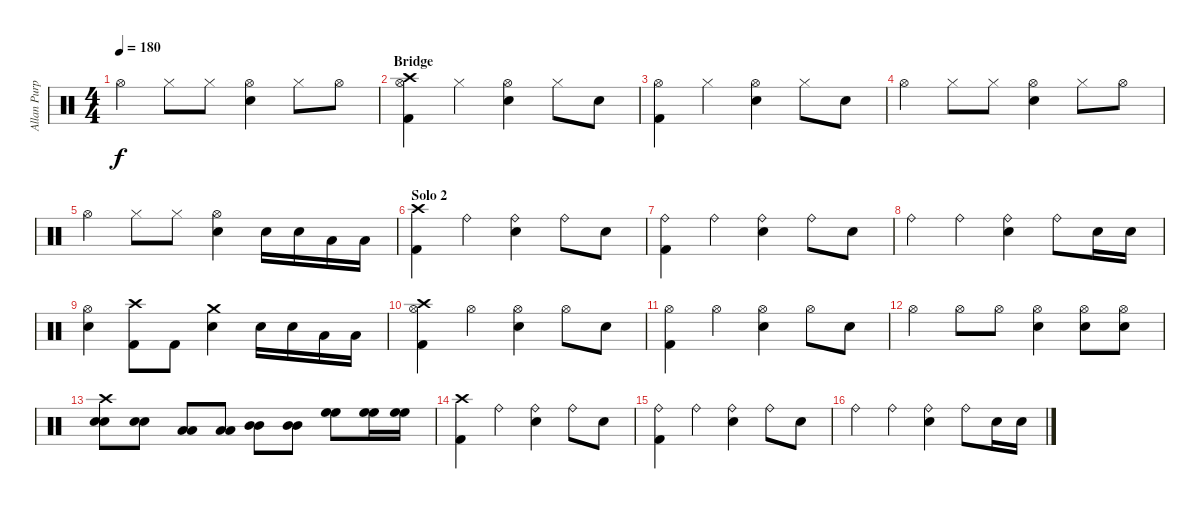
\track ("Allan Purple" "Allan Purp") {instrument percussion}
\staff {score}
\articulation defaults
\ts (4 4)
\tempo 180
\clef neutral
\ks c "Hi-Hat (open)".4{dy f} "Hi-Hat (closed)".8 "Hi-Hat (closed)".8
("Hi-Hat (open)" "Snare (hit) 2").4 "Hi-Hat (closed)".8 "Hi-Hat (open)".8 |
\section ("" "Bridge")
("Crash high (hit)" "Hi-Hat (open)" "Kick (hit) 2").4 "Hi-Hat (closed)".4 ("Hi-Hat (open)" "Snare (hit) 2").4 "Hi-Hat (closed)".8 "Snare (hit) 2".8 |
("Hi-Hat (open)" "Kick (hit) 2").4 "Hi-Hat (closed)".4 ("Hi-Hat (open)" "Snare (hit) 2").4 "Hi-Hat (closed)".8 "Snare (hit) 2".8 |
"Hi-Hat (open)".4 "Hi-Hat (closed)".8 "Hi-Hat (closed)".8 ("Hi-Hat (open)" "Snare (hit) 2").4 "Hi-Hat (closed)".8 "Hi-Hat (open)".8 |
"Hi-Hat (open)".4 "Hi-Hat (closed)".8 "Hi-Hat (closed)".8 ("Hi-Hat (open)" "Snare (hit) 2").4 "Electric Snare (hit)".16 "Electric Snare (hit)".16 "Low Tom (hit)".16 "Low Tom (hit)".16 |
\section ("" "Solo 2")
("Crash high (hit)" "Kick (hit) 2").4 "Ride (bell)".4 ("Ride (bell)" "Snare (hit) 2").4 "Ride (bell)".8 "Snare (hit) 2".8 |
("Ride (bell)" "Kick (hit) 2").4 "Ride (bell)".4 ("Ride (bell)" "Snare (hit) 2").4 "Ride (bell)".8 "Snare (hit) 2".8 |
"Ride (bell)".4 "Ride (bell)".4 ("Ride (bell)" "Snare (hit) 2").4 "Ride (bell)".8 "Electric Snare (hit)".16 "Electric Snare (hit)".16 |
("Hi-Hat (open)" "Electric Snare (hit)").4 ("Crash high (hit)" "Kick (hit) 2").8 "Kick (hit) 2".8 ("Crash medium (hit)" "Snare (hit) 2").4 "Electric Snare (hit)".16 "Electric Snare (hit)".16 "Low Tom (hit)".16 "Low Tom (hit)".16 |
("Crash high (hit)" "Hi-Hat (open)" "Kick (hit) 2").4 "Hi-Hat (open)".4 ("Hi-Hat (open)" "Snare (hit) 2").4 "Hi-Hat (open)".8 "Snare (hit) 2".8 |
("Hi-Hat (open)" "Kick (hit) 2").4 "Hi-Hat (open)".4 ("Hi-Hat (open)" "Snare (hit) 2").4 "Hi-Hat (open)".8 "Snare (hit) 2".8 |
"Hi-Hat (open)".4 "Hi-Hat (open)".8 "Hi-Hat (open)".8 ("Hi-Hat (open)" "Snare (hit) 2").4 ("Hi-Hat (open)" "Electric Snare (hit)").8 ("Hi-Hat (open)" "Electric Snare (hit)").8 |
("Crash high (hit)" "Electric Snare (hit)" "Electric Snare (hit)").8 ("Electric Snare (hit)" "Electric Snare (hit)").8 ("Low Tom (hit)" "Low Tom (hit)").8 ("Low Tom (hit)" "Low Tom (hit)").8 ("Mid Tom (hit)" "Mid Tom (hit)").8 ("Mid Tom (hit)" "Mid Tom (hit)").8 ("High Floor Tom (hit)" "High Floor Tom (hit)").8 ("High Floor Tom (hit)" "High Floor Tom (hit)").16 ("High Floor Tom (hit)" "High Floor Tom (hit)").16 |
("Crash high (hit)" "Kick (hit) 2").4 "Ride (bell)".4 ("Ride (bell)" "Snare (hit) 2").4 "Ride (bell)".8 "Snare (hit) 2".8 |
("Ride (bell)" "Kick (hit) 2").4 "Ride (bell)".4 ("Ride (bell)" "Snare (hit) 2").4 "Ride (bell)".8 "Snare (hit) 2".8 |
"Ride (bell)".4 "Ride (bell)".4 ("Ride (bell)" "Snare (hit) 2").4 "Ride (bell)".8 "Electric Snare (hit)".16 "Electric Snare (hit)".16
